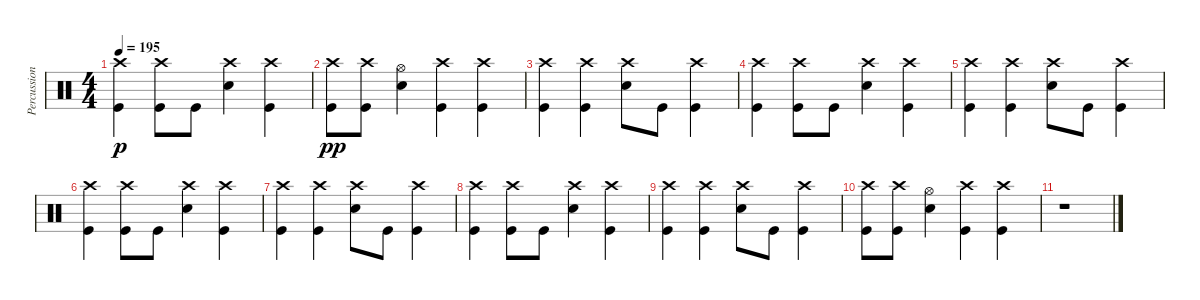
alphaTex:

\track ("Percussions" "Percussion") {instrument percussion}
\staff {score}
\articulation defaults
\ts (4 4)
\tempo 195
\clef neutral
\ks c
("Crash high (hit)" "Kick (hit)").4{dy p} ("Crash high (hit)" "Kick (hit)").8 "Kick (hit)".8 ("Crash high (hit)" "Electric Snare (hit)").4 ("Crash high (hit)" "Kick (hit)").4 |
("Crash high (hit)" "Kick (hit)").8{dy pp} ("Crash high (hit)" "Kick (hit)").8 ("Hi-Hat (open)" "Electric Snare (hit)").4 ("Crash high (hit)" "Kick (hit)").4 ("Crash high (hit)" "Kick (hit)").4 |
("Crash high (hit)" "Kick (hit)").4 ("Crash high (hit)" "Kick (hit)").4 ("Crash high (hit)" "Electric Snare (hit)").8 "Kick (hit)".8 ("Crash high (hit)" "Kick (hit)").4 |
("Crash high (hit)" "Kick (hit)").4 ("Crash high (hit)" "Kick (hit)").8 "Kick (hit)".8 ("Crash high (hit)" "Electric Snare (hit)").4 ("Crash high (hit)" "Kick (hit)").4 |
("Crash high (hit)" "Kick (hit)").4 ("Crash high (hit)" "Kick (hit)").4 ("Crash high (hit)" "Electric Snare (hit)").8 "Kick (hit)".8 ("Crash high (hit)" "Kick (hit)").4 |
("Crash high (hit)" "Kick (hit)").4 ("Crash high (hit)" "Kick (hit)").8 "Kick (hit)".8 ("Crash high (hit)" "Electric Snare (hit)").4 ("Crash high (hit)" "Kick (hit)").4 |
("Crash high (hit)" "Kick (hit)").4 ("Crash high (hit)" "Kick (hit)").4 ("Crash high (hit)" "Electric Snare (hit)").8 "Kick (hit)".8 ("Crash high (hit)" "Kick (hit)").4 |
("Crash high (hit)" "Kick (hit)").4 ("Crash high (hit)" "Kick (hit)").8 "Kick (hit)".8 ("Crash high (hit)" "Electric Snare (hit)").4 ("Crash high (hit)" "Kick (hit)").4 |
("Crash high (hit)" "Kick (hit)").4 ("Crash high (hit)" "Kick (hit)").4 ("Crash high (hit)" "Electric Snare (hit)").8 "Kick (hit)".8 ("Crash high (hit)" "Kick (hit)").4 |
("Crash high (hit)" "Kick (hit)").8 ("Crash high (hit)" "Kick (hit)").8 ("Hi-Hat (open)" "Electric Snare (hit)").4 ("Crash high (hit)" "Kick (hit)").4 ("Crash high (hit)" "Kick (hit)").4 |
r.1
